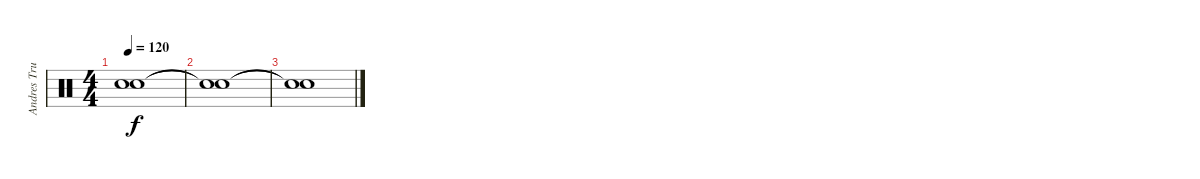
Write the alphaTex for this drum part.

\track ("Andres Trujillo" "Andres Tru") {instrument percussion}
\staff {score}
\articulation defaults
\ts (4 4)
\tempo 120
\clef neutral
\ks c
("Snare (hit)"{t} "Snare (hit)"{t}).1{dy f} |
("Snare (hit)"{t} "Snare (hit)"{t}).1 |
("Snare (hit)"{t} "Snare (hit)"{t}).1
